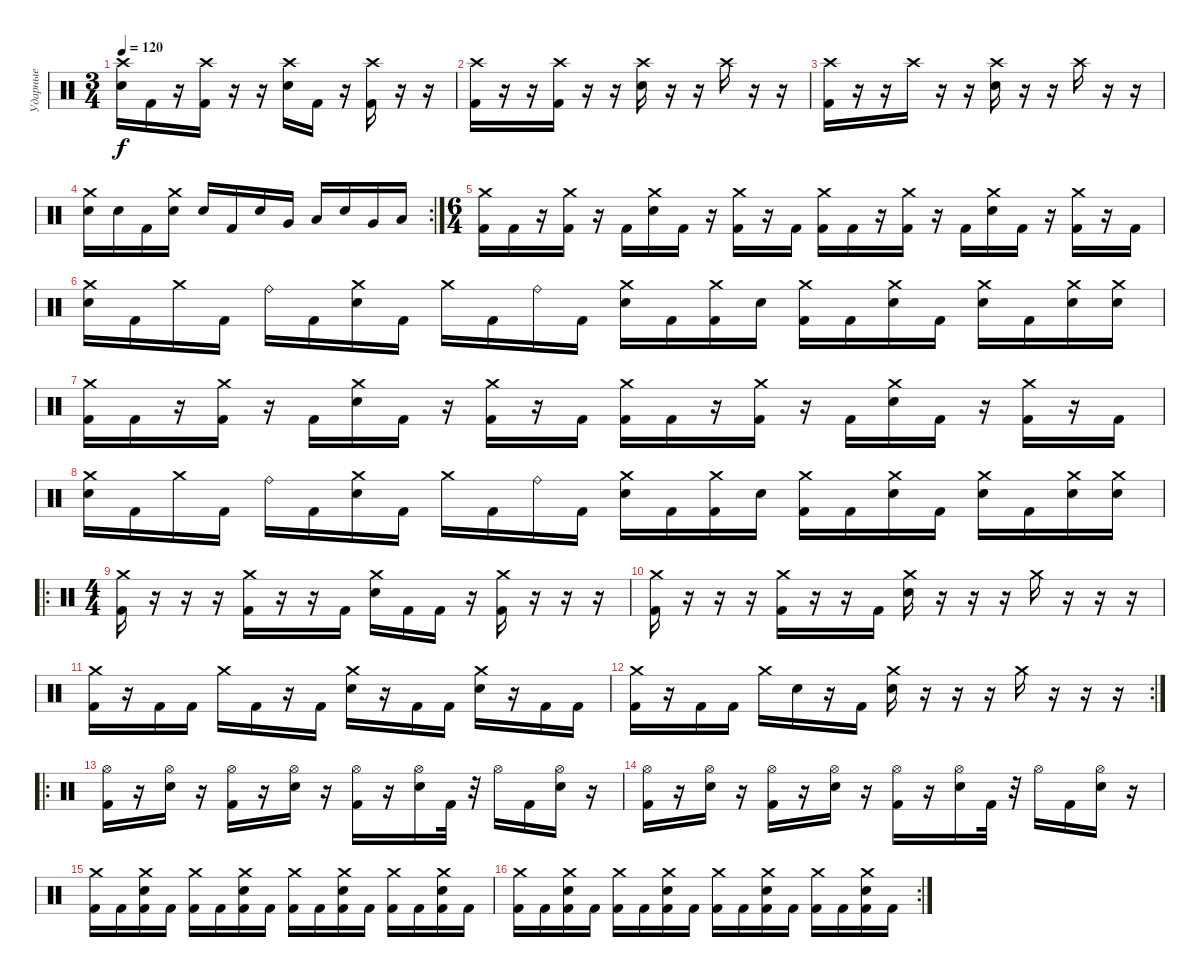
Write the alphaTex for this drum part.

\track ("Ударные" "Ударные") {instrument percussion}
\staff {score}
\articulation defaults
\ts (3 4)
\tempo 120
\clef neutral
\ks c
("Crash high (hit)" "Electric Snare (hit)").16{dy f} "Kick (hit) 2".16 r.16 ("Crash high (hit)" "Kick (hit) 2").16 r.16 r.16 ("Crash high (hit)" "Electric Snare (hit)").16 "Kick (hit) 2".16 r.16 ("Crash high (hit)" "Kick (hit) 2").16 r.16 r.16 |
("Crash high (hit)" "Kick (hit) 2").16 r.16 r.16 ("Crash high (hit)" "Kick (hit) 2").16 r.16 r.16 ("Crash high (hit)" "Electric Snare (hit)").16 r.16 r.16 "Crash high (hit)".16 r.16 r.16 |
("Crash high (hit)" "Kick (hit) 2").16 r.16 r.16 "Crash high (hit)".16 r.16 r.16 ("Crash high (hit)" "Electric Snare (hit)").16 r.16 r.16 "Crash high (hit)".16 r.16 r.16 |
\rc 2
("Crash medium (hit)" "Electric Snare (hit)").16 "Electric Snare (hit)".16 "Kick (hit) 2".16 ("Crash medium (hit)" "Electric Snare (hit)").16 "Electric Snare (hit)".16 "Kick (hit) 2".16 "Electric Snare (hit)".16 "Very Low Tom (hit)".16 "Low Tom (hit)".16 "Electric Snare (hit)".16 "Very Low Tom (hit)".16 "Low Tom (hit)".16 |
\ts (6 4)
("Crash medium (hit)" "Kick (hit) 2").16 "Kick (hit) 2".16 r.16 ("Crash medium (hit)" "Kick (hit) 2").16 r.16 "Kick (hit) 2".16 ("Crash medium (hit)" "Electric Snare (hit)").16 "Kick (hit) 2".16 r.16 ("Crash medium (hit)" "Kick (hit) 2").16 r.16 "Kick (hit) 2".16 ("Crash medium (hit)" "Kick (hit) 2").16 "Kick (hit) 2".16 r.16 ("Crash medium (hit)" "Kick (hit) 2").16 r.16 "Kick (hit) 2".16 ("Crash medium (hit)" "Electric Snare (hit)").16 "Kick (hit) 2".16 r.16 ("Crash medium (hit)" "Kick (hit) 2").16 r.16 "Kick (hit) 2".16 |
("Crash medium (hit)" "Electric Snare (hit)").16 "Kick (hit) 2".16 "Crash medium (hit)".16 "Kick (hit) 2".16 "Ride (bell)".16 "Kick (hit) 2".16 ("Crash medium (hit)" "Electric Snare (hit)").16 "Kick (hit) 2".16 "Crash medium (hit)".16 "Kick (hit) 2".16 "Ride (bell)".16 "Kick (hit) 2".16 ("Crash medium (hit)" "Electric Snare (hit)").16 "Kick (hit) 2".16 ("Crash medium (hit)" "Kick (hit) 2").16 "Electric Snare (hit)".16 ("Crash medium (hit)" "Kick (hit) 2").16 "Kick (hit) 2".16 ("Crash medium (hit)" "Electric Snare (hit)").16 "Kick (hit) 2".16 ("Crash medium (hit)" "Electric Snare (hit)").16 "Kick (hit) 2".16 ("Crash medium (hit)" "Electric Snare (hit)").16 ("Crash medium (hit)" "Electric Snare (hit)").16 |
("Crash medium (hit)" "Kick (hit) 2").16 "Kick (hit) 2".16 r.16 ("Crash medium (hit)" "Kick (hit) 2").16 r.16 "Kick (hit) 2".16 ("Crash medium (hit)" "Electric Snare (hit)").16 "Kick (hit) 2".16 r.16 ("Crash medium (hit)" "Kick (hit) 2").16 r.16 "Kick (hit) 2".16 ("Crash medium (hit)" "Kick (hit) 2").16 "Kick (hit) 2".16 r.16 ("Crash medium (hit)" "Kick (hit) 2").16 r.16 "Kick (hit) 2".16 ("Crash medium (hit)" "Electric Snare (hit)").16 "Kick (hit) 2".16 r.16 ("Crash medium (hit)" "Kick (hit) 2").16 r.16 "Kick (hit) 2".16 |
("Crash medium (hit)" "Electric Snare (hit)").16 "Kick (hit) 2".16 "Crash medium (hit)".16 "Kick (hit) 2".16 "Ride (bell)".16 "Kick (hit) 2".16 ("Crash medium (hit)" "Electric Snare (hit)").16 "Kick (hit) 2".16 "Crash medium (hit)".16 "Kick (hit) 2".16 "Ride (bell)".16 "Kick (hit) 2".16 ("Crash medium (hit)" "Electric Snare (hit)").16 "Kick (hit) 2".16 ("Crash medium (hit)" "Kick (hit) 2").16 "Electric Snare (hit)".16 ("Crash medium (hit)" "Kick (hit) 2").16 "Kick (hit) 2".16 ("Crash medium (hit)" "Electric Snare (hit)").16 "Kick (hit) 2".16 ("Crash medium (hit)" "Electric Snare (hit)").16 "Kick (hit) 2".16 ("Crash medium (hit)" "Electric Snare (hit)").16 ("Crash medium (hit)" "Electric Snare (hit)").16 |
\ro
\ts (4 4)
("Crash medium (hit)" "Kick (hit) 2").16 r.16 r.16 r.16 ("Crash medium (hit)" "Kick (hit) 2").16 r.16 r.16 "Kick (hit) 2".16 ("Crash medium (hit)" "Electric Snare (hit)").16 "Kick (hit) 2".16 "Kick (hit) 2".16 r.16 ("Crash medium (hit)" "Kick (hit) 2").16 r.16 r.16 r.16 |
("Crash medium (hit)" "Kick (hit) 2").16 r.16 r.16 r.16 ("Crash medium (hit)" "Kick (hit) 2").16 r.16 r.16 "Kick (hit) 2".16 ("Crash medium (hit)" "Electric Snare (hit)").16 r.16 r.16 r.16 "Crash medium (hit)".16 r.16 r.16 r.16 |
("Crash medium (hit)" "Kick (hit) 2").16 r.16 "Kick (hit) 2".16 "Kick (hit) 2".16 "Crash medium (hit)".16 "Kick (hit) 2".16 r.16 "Kick (hit) 2".16 ("Crash medium (hit)" "Electric Snare (hit)").16 r.16 "Kick (hit) 2".16 "Kick (hit) 2".16 ("Crash medium (hit)" "Electric Snare (hit)").16 r.16 "Kick (hit) 2".16 "Kick (hit) 2".16 |
\rc 2
("Crash medium (hit)" "Kick (hit) 2").16 r.16 "Kick (hit) 2".16 "Kick (hit) 2".16 "Crash medium (hit)".16 "Electric Snare (hit)".16 r.16 "Kick (hit) 2".16 ("Crash medium (hit)" "Electric Snare (hit)").16 r.16 r.16 r.16 "Crash medium (hit)".16 r.16 r.16 r.16 |
\ro
("Hi-Hat (open)" "Kick (hit) 2").16 r.16 ("Hi-Hat (open)" "Electric Snare (hit)").16 r.16 ("Hi-Hat (open)" "Kick (hit) 2").16 r.16 ("Hi-Hat (open)" "Electric Snare (hit)").16 r.16 ("Hi-Hat (open)" "Kick (hit) 2").16 r.16 ("Hi-Hat (open)" "Electric Snare (hit)").16 "Kick (hit) 2".32 r.32 "Hi-Hat (open)".16 "Kick (hit) 2".16 ("Hi-Hat (open)" "Electric Snare (hit)").16 r.16 |
("Hi-Hat (open)" "Kick (hit) 2").16 r.16 ("Hi-Hat (open)" "Electric Snare (hit)").16 r.16 ("Hi-Hat (open)" "Kick (hit) 2").16 r.16 ("Hi-Hat (open)" "Electric Snare (hit)").16 r.16 ("Hi-Hat (open)" "Kick (hit) 2").16 r.16 ("Hi-Hat (open)" "Electric Snare (hit)").16 "Kick (hit) 2".32 r.32 "Hi-Hat (open)".16 "Kick (hit) 2".16 ("Hi-Hat (open)" "Electric Snare (hit)").16 r.16 |
("Crash medium (hit)" "Kick (hit) 2").16 "Kick (hit) 2".16 ("Crash medium (hit)" "Electric Snare (hit)" "Kick (hit) 2").16 "Kick (hit) 2".16 ("Crash medium (hit)" "Kick (hit) 2").16 "Kick (hit) 2".16 ("Crash medium (hit)" "Electric Snare (hit)" "Kick (hit) 2").16 "Kick (hit) 2".16 ("Crash medium (hit)" "Kick (hit) 2").16 "Kick (hit) 2".16 ("Crash medium (hit)" "Electric Snare (hit)" "Kick (hit) 2").16 "Kick (hit) 2".16 ("Crash medium (hit)" "Kick (hit) 2").16 "Kick (hit) 2".16 ("Crash medium (hit)" "Electric Snare (hit)" "Kick (hit) 2").16 "Kick (hit) 2".16 |
\rc 2
("Crash medium (hit)" "Kick (hit) 2").16 "Kick (hit) 2".16 ("Crash medium (hit)" "Electric Snare (hit)" "Kick (hit) 2").16 "Kick (hit) 2".16 ("Crash medium (hit)" "Kick (hit) 2").16 "Kick (hit) 2".16 ("Crash medium (hit)" "Electric Snare (hit)" "Kick (hit) 2").16 "Kick (hit) 2".16 ("Crash medium (hit)" "Kick (hit) 2").16 "Kick (hit) 2".16 ("Crash medium (hit)" "Electric Snare (hit)" "Kick (hit) 2").16 "Kick (hit) 2".16 ("Crash medium (hit)" "Kick (hit) 2").16 "Kick (hit) 2".16 ("Crash medium (hit)" "Electric Snare (hit)" "Kick (hit) 2").16 "Kick (hit) 2".16
